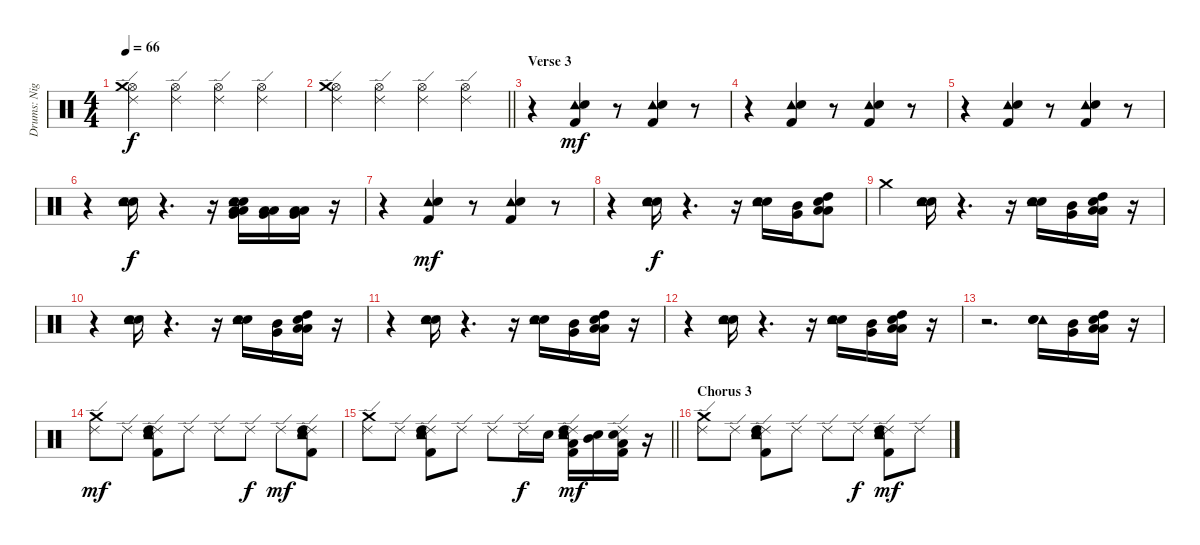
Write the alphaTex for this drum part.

\track ("Drums: Nigel Olsson" "Drums: Nig") {instrument percussion}
\staff {score}
\articulation defaults
\ts (4 4)
\tempo 66
\clef neutral
\ks c
("Hi-Hat (open)" "Ride (edge) 2" "Crash medium (hit)").4{dy f} ("Hi-Hat (open)" "Ride (edge) 2").4 ("Hi-Hat (open)" "Ride (edge) 2").4 ("Hi-Hat (open)" "Ride (edge) 2").4 |
\barLineRight lightlight
("Hi-Hat (open)" "Ride (edge) 2" "Crash medium (hit)").4 ("Hi-Hat (open)" "Ride (edge) 2").4 ("Hi-Hat (open)" "Ride (edge) 2").4 ("Hi-Hat (open)" "Ride (edge) 2").4 |
\section ("" "Verse 3")
r.4 ("Tambourine (hit)" "Snare (hit) 2" "Kick (hit) 2").4{dy mf} r.8 ("Tambourine (hit)" "Snare (hit) 2" "Kick (hit) 2").4 r.8 |
r.4 ("Tambourine (hit)" "Snare (hit) 2" "Kick (hit) 2").4 r.8 ("Tambourine (hit)" "Snare (hit) 2" "Kick (hit) 2").4 r.8 |
r.4 ("Tambourine (hit)" "Snare (hit) 2" "Kick (hit) 2").4 r.8 ("Tambourine (hit)" "Snare (hit) 2" "Kick (hit) 2").4 r.8 |
r.4 ("Electric Snare (hit)" "Tambourine (hit)" "Snare (hit) 2").16{dy f} r.4{d} r.16 ("Low Tom (hit)" "Very Low Tom (hit)" "Low Floor Tom (hit)" "Electric Snare (hit)" "Snare (hit) 2" "Tambourine (hit)").16 ("Low Tom (hit)" "Very Low Tom (hit)" "Low Floor Tom (hit)").16 ("Low Floor Tom (hit)" "Very Low Tom (hit)" "Low Tom (hit)").16 r.16 |
r.4 ("Tambourine (hit)" "Snare (hit) 2" "Kick (hit) 2").4{dy mf} r.8 ("Tambourine (hit)" "Snare (hit) 2" "Kick (hit) 2").4 r.8 |
r.4 ("Snare (hit) 2" "Tambourine (hit)" "Electric Snare (hit)").16{dy f} r.4{d} r.16 ("Electric Snare (hit)" "Snare (hit) 2" "Tambourine (hit)").16 ("Very Low Tom (hit)" "Mid Tom (hit)").16 ("Low Tom (hit)" "Low Floor Tom (hit)" "Snare (hit) 2" "High Tom (hit)").8 |
"Crash medium (hit)".4 ("Electric Snare (hit)" "Tambourine (hit)" "Snare (hit) 2").16 r.4{d} r.16 ("Electric Snare (hit)" "Snare (hit) 2" "Tambourine (hit)").16 ("Very Low Tom (hit)" "Mid Tom (hit)").16 ("Low Tom (hit)" "Low Floor Tom (hit)" "Snare (hit) 2" "High Tom (hit)").16 r.16 |
r.4 ("Electric Snare (hit)" "Tambourine (hit)" "Snare (hit) 2").16 r.4{d} r.16 ("Electric Snare (hit)" "Snare (hit) 2" "Tambourine (hit)").16 ("Very Low Tom (hit)" "Mid Tom (hit)").16 ("Low Tom (hit)" "Low Floor Tom (hit)" "Snare (hit) 2" "High Tom (hit)").16 r.16 |
r.4 ("Electric Snare (hit)" "Tambourine (hit)" "Snare (hit) 2").16 r.4{d} r.16 ("Electric Snare (hit)" "Snare (hit) 2" "Tambourine (hit)").16 ("Very Low Tom (hit)" "Mid Tom (hit)").16 ("Low Tom (hit)" "Low Floor Tom (hit)" "Snare (hit) 2" "High Tom (hit)").16 r.16 |
r.4 ("Electric Snare (hit)" "Tambourine (hit)" "Snare (hit) 2").16 r.4{d} r.16 ("Electric Snare (hit)" "Snare (hit) 2" "Tambourine (hit)").16 ("Very Low Tom (hit)" "Mid Tom (hit)").16 ("Low Tom (hit)" "Low Floor Tom (hit)" "Snare (hit) 2" "High Tom (hit)").16 r.16 |
r.2{d} ("Tambourine (hit)" "Snare (hit) 2" "Electric Snare (hit)").16 ("Very Low Tom (hit)" "Mid Tom (hit)").16 ("Low Tom (hit)" "Low Floor Tom (hit)" "Snare (hit) 2" "High Tom (hit)").16 r.16 |
("Ride (edge) 2" "Crash medium (hit)").8{dy mf} "Ride (edge) 2".8 ("Ride (edge) 2" "Tambourine (hit)" "Snare (hit) 2" "High Tom (hit)" "Kick (hit) 2").8 "Ride (edge) 2".8 "Ride (edge) 2".8 "Ride (edge) 2".8{dy f} "Ride (edge) 2".8{dy mf} ("Ride (edge) 2" "Tambourine (hit)" "Snare (hit) 2" "High Tom (hit)" "Kick (hit) 2").8 |
\barLineRight lightlight
("Ride (edge) 2" "Crash medium (hit)").8 "Ride (edge) 2".8 ("Ride (edge) 2" "Tambourine (hit)" "Snare (hit) 2" "High Tom (hit)" "Kick (hit) 2").8 "Ride (edge) 2".8 "Ride (edge) 2".8 "Ride (edge) 2".16{dy f} "Electric Snare (hit)".16 ("Ride (edge) 2" "Tambourine (hit)" "Snare (hit) 2" "Low Floor Tom (hit)" "Kick (hit) 2" "High Tom (hit)").16{dy mf} ("Snare (hit) 2" "Mid Tom (hit)").16 ("Ride (edge) 2" "Snare (hit) 2" "Low Floor Tom (hit)" "Kick (hit) 2").16 r.16 |
\section ("" "Chorus 3")
("Ride (edge) 2" "Crash medium (hit)").8 "Ride (edge) 2".8 ("Ride (edge) 2" "Tambourine (hit)" "Snare (hit) 2" "High Tom (hit)" "Kick (hit) 2").8 "Ride (edge) 2".8 "Ride (edge) 2".8 "Ride (edge) 2".8{dy f} ("Ride (edge) 2" "Tambourine (hit)" "Snare (hit) 2" "High Tom (hit)" "Kick (hit) 2").8{dy mf} "Ride (edge) 2".8
